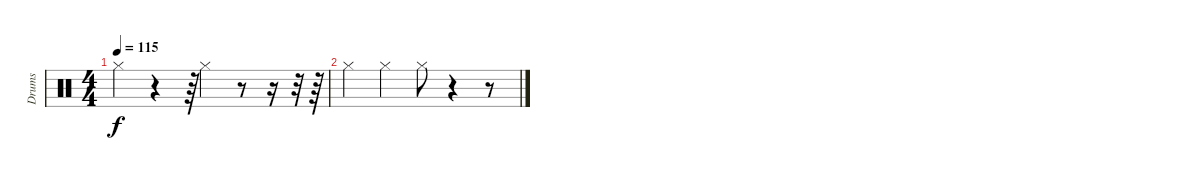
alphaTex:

\track ("Drums" "Drums") {instrument percussion}
\staff {score}
\articulation defaults
\ts (4 4)
\tempo 115
\clef neutral
\ks c "Hi-Hat (closed)".4{dy f}
r.4 r.64 "Hi-Hat (closed)".4 r.8 r.16 r.32 r.64 |
"Hi-Hat (closed)".4 "Hi-Hat (closed)".4 "Hi-Hat (closed)".8 r.4 r.8
